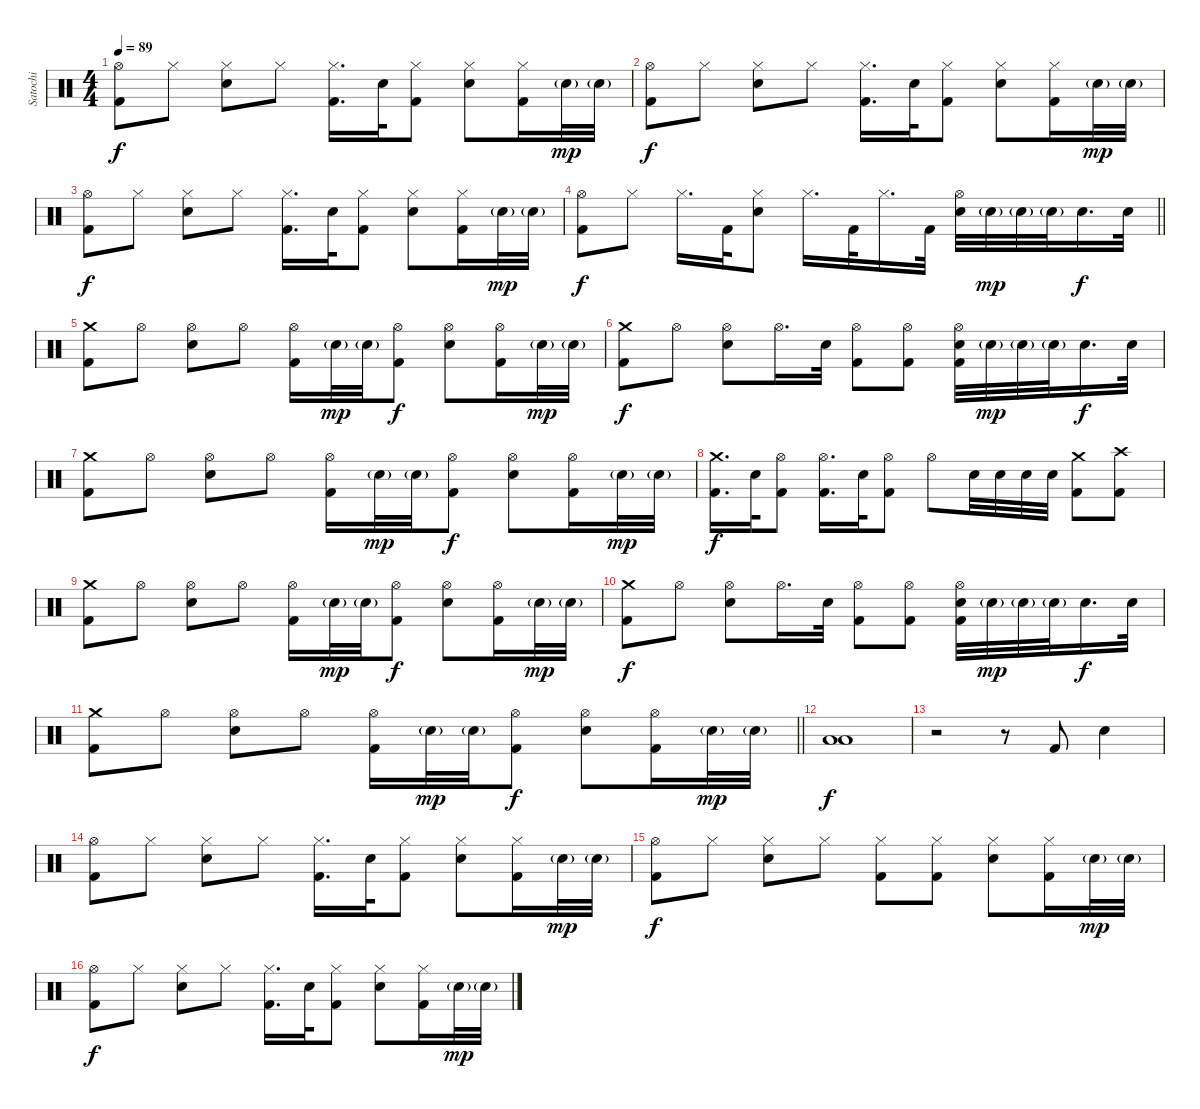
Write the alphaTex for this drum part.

\track ("Satochi" "Satochi") {instrument percussion}
\staff {score}
\articulation defaults
\ts (4 4)
\tempo 89
\clef neutral
\ks c
("Hi-Hat (open)" "Kick (hit) 2").8{dy f} "Hi-Hat (closed)".8 ("Hi-Hat (closed)" "Electric Snare (hit)").8 "Hi-Hat (closed)".8 ("Hi-Hat (closed)" "Kick (hit) 2").16{d} "Electric Snare (hit)".32 ("Hi-Hat (closed)" "Kick (hit) 2").8 ("Hi-Hat (closed)" "Electric Snare (hit)").8 ("Hi-Hat (closed)" "Kick (hit) 2").16 "Electric Snare (hit)"{g}.32{dy mp} "Electric Snare (hit)"{g}.32 |
("Hi-Hat (open)" "Kick (hit) 2").8{dy f} "Hi-Hat (closed)".8 ("Hi-Hat (closed)" "Electric Snare (hit)").8 "Hi-Hat (closed)".8 ("Hi-Hat (closed)" "Kick (hit) 2").16{d} "Electric Snare (hit)".32 ("Hi-Hat (closed)" "Kick (hit) 2").8 ("Hi-Hat (closed)" "Electric Snare (hit)").8 ("Hi-Hat (closed)" "Kick (hit) 2").16 "Electric Snare (hit)"{g}.32{dy mp} "Electric Snare (hit)"{g}.32 |
("Hi-Hat (open)" "Kick (hit) 2").8{dy f} "Hi-Hat (closed)".8 ("Hi-Hat (closed)" "Electric Snare (hit)").8 "Hi-Hat (closed)".8 ("Hi-Hat (closed)" "Kick (hit) 2").16{d} "Electric Snare (hit)".32 ("Hi-Hat (closed)" "Kick (hit) 2").8 ("Hi-Hat (closed)" "Electric Snare (hit)").8 ("Hi-Hat (closed)" "Kick (hit) 2").16 "Electric Snare (hit)"{g}.32{dy mp} "Electric Snare (hit)"{g}.32 |
\barLineRight lightlight
("Hi-Hat (open)" "Kick (hit) 2").8{dy f} "Hi-Hat (closed)".8 "Hi-Hat (closed)".16{d} "Kick (hit) 2".32 ("Hi-Hat (closed)" "Electric Snare (hit)").8 "Hi-Hat (closed)".16{d} "Kick (hit) 2".32 "Hi-Hat (closed)".16{d} "Kick (hit) 2".32 ("Hi-Hat (open)" "Electric Snare (hit)").32 "Electric Snare (hit)"{g}.32{dy mp} "Electric Snare (hit)"{g}.32 "Electric Snare (hit)"{g}.32 "Electric Snare (hit)".16{d dy f} "Electric Snare (hit)".32 |
("Crash medium (hit)" "Kick (hit) 2").8 "Hi-Hat (open)".8 ("Hi-Hat (open)" "Electric Snare (hit)").8 "Hi-Hat (open)".8 ("Hi-Hat (open)" "Kick (hit) 2").16 "Electric Snare (hit)"{g}.32{dy mp} "Electric Snare (hit)"{g}.32 ("Hi-Hat (open)" "Kick (hit) 2").8{dy f} ("Hi-Hat (open)" "Electric Snare (hit)").8 ("Hi-Hat (open)" "Kick (hit) 2").16 "Electric Snare (hit)"{g}.32{dy mp} "Electric Snare (hit)"{g}.32 |
("Crash medium (hit)" "Kick (hit) 2").8{dy f} "Hi-Hat (open)".8 ("Hi-Hat (open)" "Electric Snare (hit)").8 "Hi-Hat (open)".16{d} "Electric Snare (hit)".32 ("Hi-Hat (open)" "Kick (hit) 2").8 ("Hi-Hat (open)" "Kick (hit) 2").8 ("Hi-Hat (open)" "Electric Snare (hit)" "Kick (hit) 2").32 "Electric Snare (hit)"{g}.32{dy mp} "Electric Snare (hit)"{g}.32 "Electric Snare (hit)"{g}.32 "Electric Snare (hit)".16{d dy f} "Electric Snare (hit)".32 |
("Crash medium (hit)" "Kick (hit) 2").8 "Hi-Hat (open)".8 ("Hi-Hat (open)" "Electric Snare (hit)").8 "Hi-Hat (open)".8 ("Hi-Hat (open)" "Kick (hit) 2").16 "Electric Snare (hit)"{g}.32{dy mp} "Electric Snare (hit)"{g}.32 ("Hi-Hat (open)" "Kick (hit) 2").8{dy f} ("Hi-Hat (open)" "Electric Snare (hit)").8 ("Hi-Hat (open)" "Kick (hit) 2").16 "Electric Snare (hit)"{g}.32{dy mp} "Electric Snare (hit)"{g}.32 |
("Crash medium (hit)" "Kick (hit) 2").16{d dy f} "Electric Snare (hit)".32 ("Hi-Hat (open)" "Kick (hit) 2").8 ("Hi-Hat (open)" "Kick (hit) 2").16{d} "Electric Snare (hit)".32 ("Hi-Hat (open)" "Kick (hit) 2").8 "Hi-Hat (open)".8 "Electric Snare (hit)".32 "Electric Snare (hit)".32 "Electric Snare (hit)".32 "Electric Snare (hit)".32 ("Crash medium (hit)" "Kick (hit) 2").8 ("Crash high (hit)" "Kick (hit) 2").8 |
("Crash medium (hit)" "Kick (hit) 2").8 "Hi-Hat (open)".8 ("Hi-Hat (open)" "Electric Snare (hit)").8 "Hi-Hat (open)".8 ("Hi-Hat (open)" "Kick (hit) 2").16 "Electric Snare (hit)"{g}.32{dy mp} "Electric Snare (hit)"{g}.32 ("Hi-Hat (open)" "Kick (hit) 2").8{dy f} ("Hi-Hat (open)" "Electric Snare (hit)").8 ("Hi-Hat (open)" "Kick (hit) 2").16 "Electric Snare (hit)"{g}.32{dy mp} "Electric Snare (hit)"{g}.32 |
("Crash medium (hit)" "Kick (hit) 2").8{dy f} "Hi-Hat (open)".8 ("Hi-Hat (open)" "Electric Snare (hit)").8 "Hi-Hat (open)".16{d} "Electric Snare (hit)".32 ("Hi-Hat (open)" "Kick (hit) 2").8 ("Hi-Hat (open)" "Kick (hit) 2").8 ("Hi-Hat (open)" "Electric Snare (hit)" "Kick (hit) 2").32 "Electric Snare (hit)"{g}.32{dy mp} "Electric Snare (hit)"{g}.32 "Electric Snare (hit)"{g}.32 "Electric Snare (hit)".16{d dy f} "Electric Snare (hit)".32 |
\barLineRight lightlight
("Crash medium (hit)" "Kick (hit) 2").8 "Hi-Hat (open)".8 ("Hi-Hat (open)" "Electric Snare (hit)").8 "Hi-Hat (open)".8 ("Hi-Hat (open)" "Kick (hit) 2").16 "Electric Snare (hit)"{g}.32{dy mp} "Electric Snare (hit)"{g}.32 ("Hi-Hat (open)" "Kick (hit) 2").8{dy f} ("Hi-Hat (open)" "Electric Snare (hit)").8 ("Hi-Hat (open)" "Kick (hit) 2").16 "Electric Snare (hit)"{g}.32{dy mp} "Electric Snare (hit)"{g}.32 |
("Low Tom (hit)" "Low Tom (hit)").1{dy f} |
r.2 r.8 "Kick (hit) 2".8 "Electric Snare (hit)".4 |
("Hi-Hat (open)" "Kick (hit) 2").8 "Hi-Hat (closed)".8 ("Hi-Hat (closed)" "Electric Snare (hit)").8 "Hi-Hat (closed)".8 ("Hi-Hat (closed)" "Kick (hit) 2").16{d} "Electric Snare (hit)".32 ("Hi-Hat (closed)" "Kick (hit) 2").8 ("Hi-Hat (closed)" "Electric Snare (hit)").8 ("Hi-Hat (closed)" "Kick (hit) 2").16 "Electric Snare (hit)"{g}.32{dy mp} "Electric Snare (hit)"{g}.32 |
("Hi-Hat (open)" "Kick (hit) 2").8{dy f} "Hi-Hat (closed)".8 ("Hi-Hat (closed)" "Electric Snare (hit)").8 "Hi-Hat (closed)".8 ("Hi-Hat (closed)" "Kick (hit) 2").8 ("Hi-Hat (closed)" "Kick (hit) 2").8 ("Hi-Hat (closed)" "Electric Snare (hit)").8 ("Hi-Hat (closed)" "Kick (hit) 2").16 "Electric Snare (hit)"{g}.32{dy mp} "Electric Snare (hit)"{g}.32 |
("Hi-Hat (open)" "Kick (hit) 2").8{dy f} "Hi-Hat (closed)".8 ("Hi-Hat (closed)" "Electric Snare (hit)").8 "Hi-Hat (closed)".8 ("Hi-Hat (closed)" "Kick (hit) 2").16{d} "Electric Snare (hit)".32 ("Hi-Hat (closed)" "Kick (hit) 2").8 ("Hi-Hat (closed)" "Electric Snare (hit)").8 ("Hi-Hat (closed)" "Kick (hit) 2").16 "Electric Snare (hit)"{g}.32{dy mp} "Electric Snare (hit)"{g}.32
